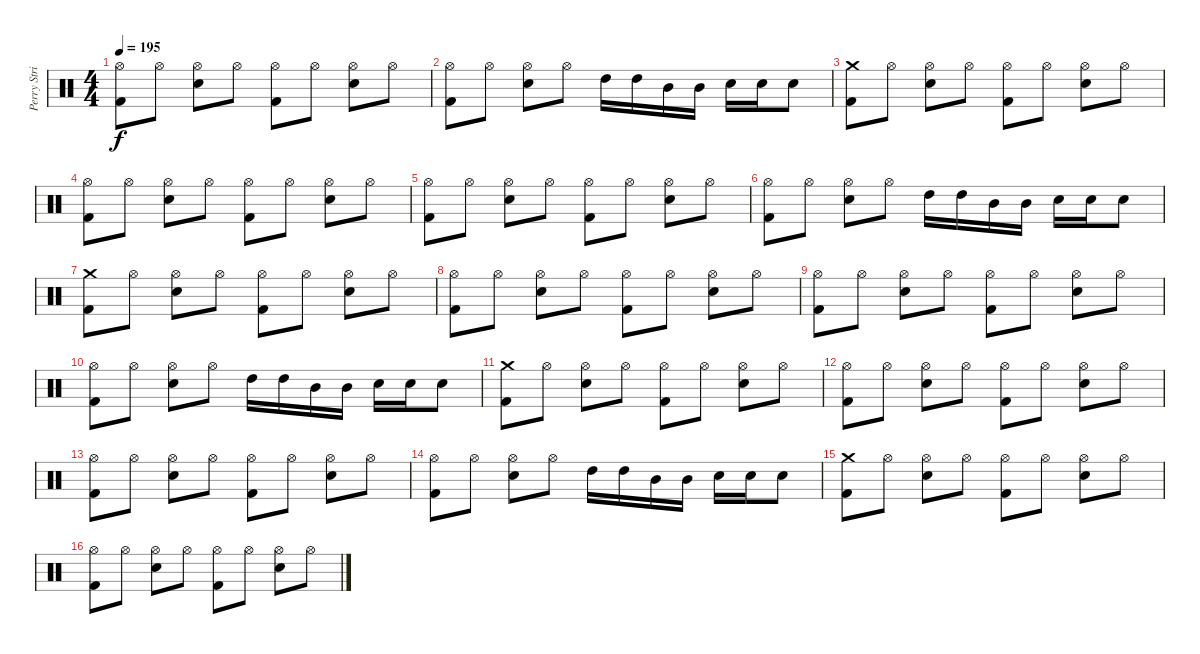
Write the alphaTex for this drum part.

\track ("Perry Strickland" "Perry Stri") {instrument percussion}
\staff {score}
\articulation defaults
\ts (4 4)
\tempo 195
\clef neutral
\ks c
("Hi-Hat (open)" "Kick (hit) 2").8{dy f} "Hi-Hat (open)".8 ("Hi-Hat (open)" "Electric Snare (hit)").8 "Hi-Hat (open)".8 ("Hi-Hat (open)" "Kick (hit) 2").8 "Hi-Hat (open)".8 ("Hi-Hat (open)" "Electric Snare (hit)").8 "Hi-Hat (open)".8 |
("Hi-Hat (open)" "Kick (hit) 2").8 "Hi-Hat (open)".8 ("Hi-Hat (open)" "Electric Snare (hit)").8 "Hi-Hat (open)".8 "High Tom (hit)".16 "High Tom (hit)".16 "Mid Tom (hit)".16 "Mid Tom (hit)".16 "Electric Snare (hit)".16 "Electric Snare (hit)".16 "Electric Snare (hit)".8 |
("Crash medium (hit)" "Kick (hit) 2").8 "Hi-Hat (open)".8 ("Hi-Hat (open)" "Electric Snare (hit)").8 "Hi-Hat (open)".8 ("Hi-Hat (open)" "Kick (hit) 2").8 "Hi-Hat (open)".8 ("Hi-Hat (open)" "Electric Snare (hit)").8 "Hi-Hat (open)".8 |
("Hi-Hat (open)" "Kick (hit) 2").8 "Hi-Hat (open)".8 ("Hi-Hat (open)" "Electric Snare (hit)").8 "Hi-Hat (open)".8 ("Hi-Hat (open)" "Kick (hit) 2").8 "Hi-Hat (open)".8 ("Hi-Hat (open)" "Electric Snare (hit)").8 "Hi-Hat (open)".8 |
("Hi-Hat (open)" "Kick (hit) 2").8 "Hi-Hat (open)".8 ("Hi-Hat (open)" "Electric Snare (hit)").8 "Hi-Hat (open)".8 ("Hi-Hat (open)" "Kick (hit) 2").8 "Hi-Hat (open)".8 ("Hi-Hat (open)" "Electric Snare (hit)").8 "Hi-Hat (open)".8 |
("Hi-Hat (open)" "Kick (hit) 2").8 "Hi-Hat (open)".8 ("Hi-Hat (open)" "Electric Snare (hit)").8 "Hi-Hat (open)".8 "High Tom (hit)".16 "High Tom (hit)".16 "Mid Tom (hit)".16 "Mid Tom (hit)".16 "Electric Snare (hit)".16 "Electric Snare (hit)".16 "Electric Snare (hit)".8 |
("Crash medium (hit)" "Kick (hit) 2").8 "Hi-Hat (open)".8 ("Hi-Hat (open)" "Electric Snare (hit)").8 "Hi-Hat (open)".8 ("Hi-Hat (open)" "Kick (hit) 2").8 "Hi-Hat (open)".8 ("Hi-Hat (open)" "Electric Snare (hit)").8 "Hi-Hat (open)".8 |
("Hi-Hat (open)" "Kick (hit) 2").8 "Hi-Hat (open)".8 ("Hi-Hat (open)" "Electric Snare (hit)").8 "Hi-Hat (open)".8 ("Hi-Hat (open)" "Kick (hit) 2").8 "Hi-Hat (open)".8 ("Hi-Hat (open)" "Electric Snare (hit)").8 "Hi-Hat (open)".8 |
("Hi-Hat (open)" "Kick (hit) 2").8 "Hi-Hat (open)".8 ("Hi-Hat (open)" "Electric Snare (hit)").8 "Hi-Hat (open)".8 ("Hi-Hat (open)" "Kick (hit) 2").8 "Hi-Hat (open)".8 ("Hi-Hat (open)" "Electric Snare (hit)").8 "Hi-Hat (open)".8 |
("Hi-Hat (open)" "Kick (hit) 2").8 "Hi-Hat (open)".8 ("Hi-Hat (open)" "Electric Snare (hit)").8 "Hi-Hat (open)".8 "High Tom (hit)".16 "High Tom (hit)".16 "Mid Tom (hit)".16 "Mid Tom (hit)".16 "Electric Snare (hit)".16 "Electric Snare (hit)".16 "Electric Snare (hit)".8 |
("Crash medium (hit)" "Kick (hit) 2").8 "Hi-Hat (open)".8 ("Hi-Hat (open)" "Electric Snare (hit)").8 "Hi-Hat (open)".8 ("Hi-Hat (open)" "Kick (hit) 2").8 "Hi-Hat (open)".8 ("Hi-Hat (open)" "Electric Snare (hit)").8 "Hi-Hat (open)".8 |
("Hi-Hat (open)" "Kick (hit) 2").8 "Hi-Hat (open)".8 ("Hi-Hat (open)" "Electric Snare (hit)").8 "Hi-Hat (open)".8 ("Hi-Hat (open)" "Kick (hit) 2").8 "Hi-Hat (open)".8 ("Hi-Hat (open)" "Electric Snare (hit)").8 "Hi-Hat (open)".8 |
("Hi-Hat (open)" "Kick (hit) 2").8 "Hi-Hat (open)".8 ("Hi-Hat (open)" "Electric Snare (hit)").8 "Hi-Hat (open)".8 ("Hi-Hat (open)" "Kick (hit) 2").8 "Hi-Hat (open)".8 ("Hi-Hat (open)" "Electric Snare (hit)").8 "Hi-Hat (open)".8 |
("Hi-Hat (open)" "Kick (hit) 2").8 "Hi-Hat (open)".8 ("Hi-Hat (open)" "Electric Snare (hit)").8 "Hi-Hat (open)".8 "High Tom (hit)".16 "High Tom (hit)".16 "Mid Tom (hit)".16 "Mid Tom (hit)".16 "Electric Snare (hit)".16 "Electric Snare (hit)".16 "Electric Snare (hit)".8 |
("Crash medium (hit)" "Kick (hit) 2").8 "Hi-Hat (open)".8 ("Hi-Hat (open)" "Electric Snare (hit)").8 "Hi-Hat (open)".8 ("Hi-Hat (open)" "Kick (hit) 2").8 "Hi-Hat (open)".8 ("Hi-Hat (open)" "Electric Snare (hit)").8 "Hi-Hat (open)".8 |
("Hi-Hat (open)" "Kick (hit) 2").8 "Hi-Hat (open)".8 ("Hi-Hat (open)" "Electric Snare (hit)").8 "Hi-Hat (open)".8 ("Hi-Hat (open)" "Kick (hit) 2").8 "Hi-Hat (open)".8 ("Hi-Hat (open)" "Electric Snare (hit)").8 "Hi-Hat (open)".8
